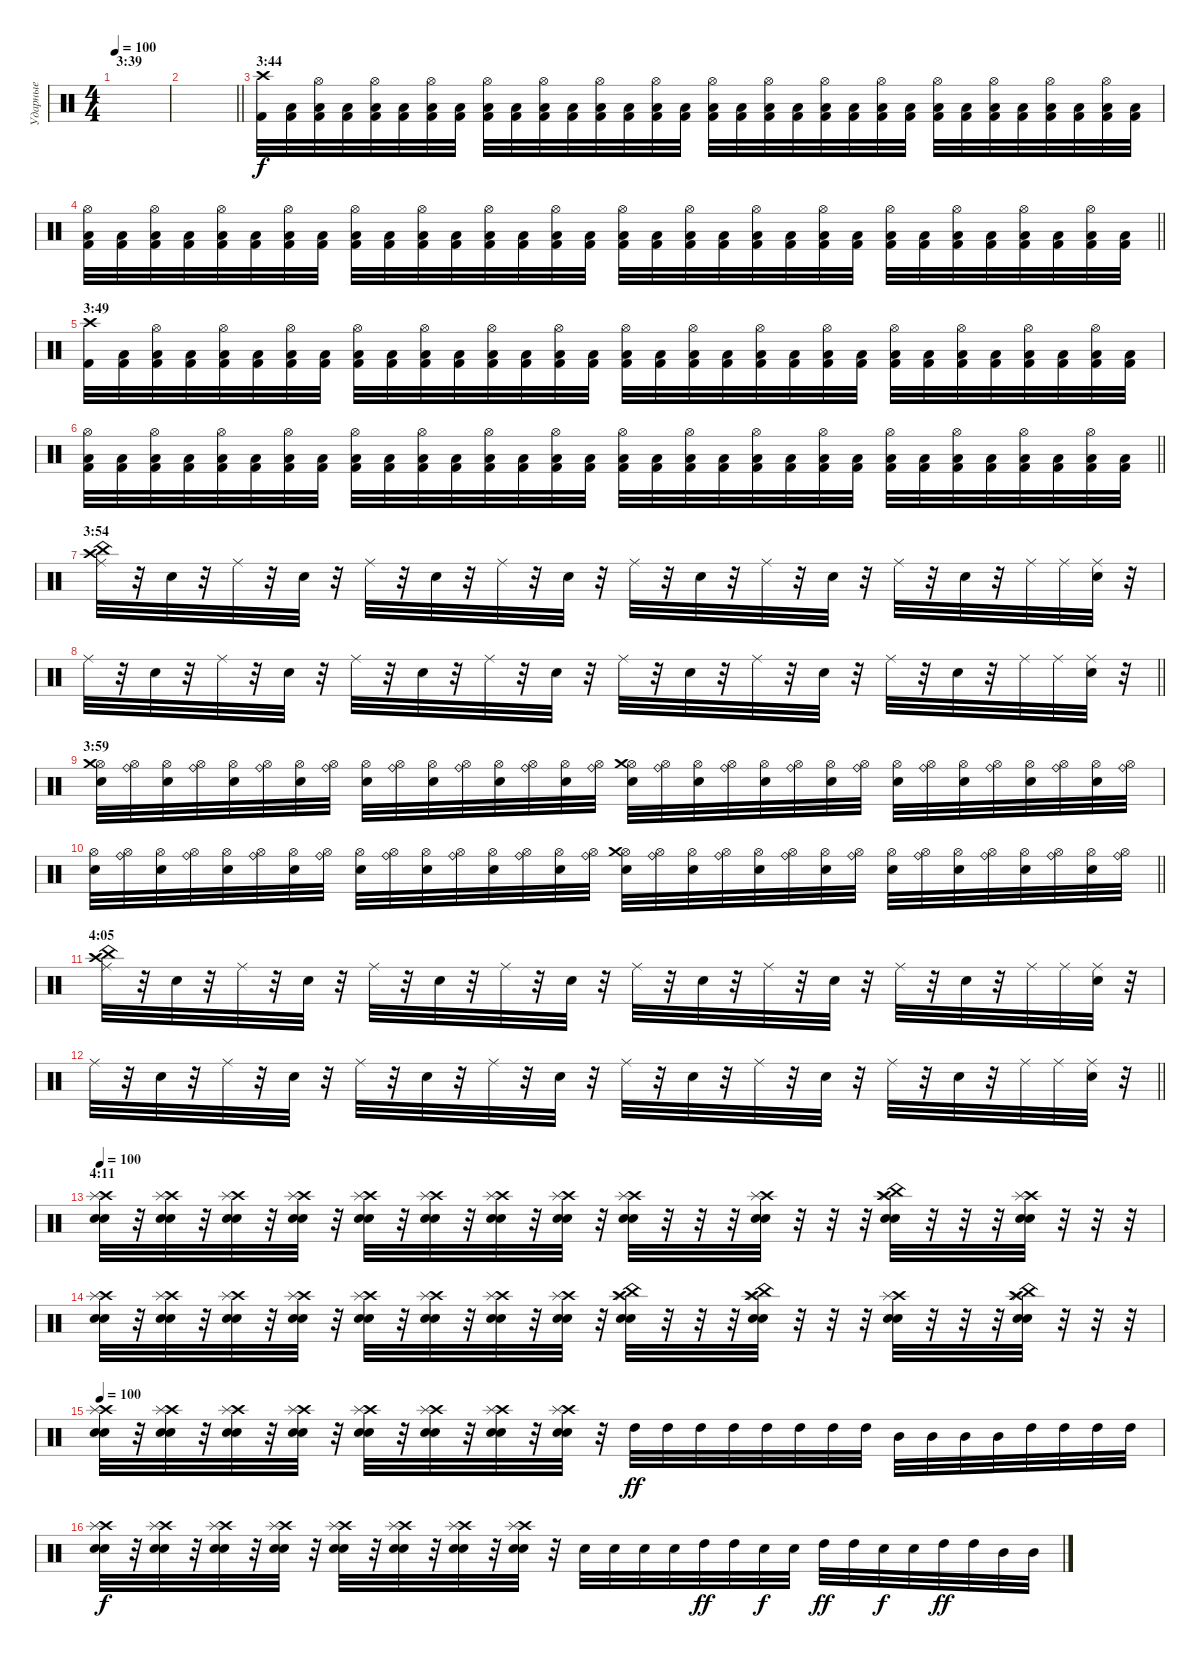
\track ("Ударные" "Ударные") {instrument percussion}
\staff {score}
\articulation defaults
\ts (4 4)
\section ("" "3:39")
\tempo 100
\clef neutral
\ks c
|
\barLineRight lightlight
|
\section ("" "3:44")
("Crash high (hit)" "Kick (hit) 2").32{dy f} ("Low Floor Tom (hit)" "Kick (hit) 2").32 ("Low Floor Tom (hit)" "Kick (hit) 2" "Hi-Hat (open)").32 ("Low Floor Tom (hit)" "Kick (hit) 2").32 ("Low Floor Tom (hit)" "Kick (hit) 2" "Hi-Hat (open)").32 ("Low Floor Tom (hit)" "Kick (hit) 2").32 ("Low Floor Tom (hit)" "Kick (hit) 2" "Hi-Hat (open)").32 ("Low Floor Tom (hit)" "Kick (hit) 2").32 ("Low Floor Tom (hit)" "Kick (hit) 2" "Hi-Hat (open)").32 ("Low Floor Tom (hit)" "Kick (hit) 2").32 ("Low Floor Tom (hit)" "Kick (hit) 2" "Hi-Hat (open)").32 ("Low Floor Tom (hit)" "Kick (hit) 2").32 ("Low Floor Tom (hit)" "Kick (hit) 2" "Hi-Hat (open)").32 ("Low Floor Tom (hit)" "Kick (hit) 2").32 ("Low Floor Tom (hit)" "Kick (hit) 2" "Hi-Hat (open)").32 ("Low Floor Tom (hit)" "Kick (hit) 2").32 ("Low Floor Tom (hit)" "Kick (hit) 2" "Hi-Hat (open)").32 ("Low Floor Tom (hit)" "Kick (hit) 2").32 ("Low Floor Tom (hit)" "Kick (hit) 2" "Hi-Hat (open)").32 ("Low Floor Tom (hit)" "Kick (hit) 2").32 ("Low Floor Tom (hit)" "Kick (hit) 2" "Hi-Hat (open)").32 ("Low Floor Tom (hit)" "Kick (hit) 2").32 ("Low Floor Tom (hit)" "Kick (hit) 2" "Hi-Hat (open)").32 ("Low Floor Tom (hit)" "Kick (hit) 2").32 ("Low Floor Tom (hit)" "Kick (hit) 2" "Hi-Hat (open)").32 ("Low Floor Tom (hit)" "Kick (hit) 2").32 ("Low Floor Tom (hit)" "Kick (hit) 2" "Hi-Hat (open)").32 ("Low Floor Tom (hit)" "Kick (hit) 2").32 ("Low Floor Tom (hit)" "Kick (hit) 2" "Hi-Hat (open)").32 ("Low Floor Tom (hit)" "Kick (hit) 2").32 ("Low Floor Tom (hit)" "Kick (hit) 2" "Hi-Hat (open)").32 ("Low Floor Tom (hit)" "Kick (hit) 2").32 |
\barLineRight lightlight
("Low Floor Tom (hit)" "Kick (hit) 2" "Hi-Hat (open)").32 ("Low Floor Tom (hit)" "Kick (hit) 2").32 ("Low Floor Tom (hit)" "Kick (hit) 2" "Hi-Hat (open)").32 ("Low Floor Tom (hit)" "Kick (hit) 2").32 ("Low Floor Tom (hit)" "Kick (hit) 2" "Hi-Hat (open)").32 ("Low Floor Tom (hit)" "Kick (hit) 2").32 ("Low Floor Tom (hit)" "Kick (hit) 2" "Hi-Hat (open)").32 ("Low Floor Tom (hit)" "Kick (hit) 2").32 ("Low Floor Tom (hit)" "Kick (hit) 2" "Hi-Hat (open)").32 ("Low Floor Tom (hit)" "Kick (hit) 2").32 ("Low Floor Tom (hit)" "Kick (hit) 2" "Hi-Hat (open)").32 ("Low Floor Tom (hit)" "Kick (hit) 2").32 ("Low Floor Tom (hit)" "Kick (hit) 2" "Hi-Hat (open)").32 ("Low Floor Tom (hit)" "Kick (hit) 2").32 ("Low Floor Tom (hit)" "Kick (hit) 2" "Hi-Hat (open)").32 ("Low Floor Tom (hit)" "Kick (hit) 2").32 ("Low Floor Tom (hit)" "Kick (hit) 2" "Hi-Hat (open)").32 ("Low Floor Tom (hit)" "Kick (hit) 2").32 ("Low Floor Tom (hit)" "Kick (hit) 2" "Hi-Hat (open)").32 ("Low Floor Tom (hit)" "Kick (hit) 2").32 ("Low Floor Tom (hit)" "Kick (hit) 2" "Hi-Hat (open)").32 ("Low Floor Tom (hit)" "Kick (hit) 2").32 ("Low Floor Tom (hit)" "Kick (hit) 2" "Hi-Hat (open)").32 ("Low Floor Tom (hit)" "Kick (hit) 2").32 ("Low Floor Tom (hit)" "Kick (hit) 2" "Hi-Hat (open)").32 ("Low Floor Tom (hit)" "Kick (hit) 2").32 ("Low Floor Tom (hit)" "Kick (hit) 2" "Hi-Hat (open)").32 ("Low Floor Tom (hit)" "Kick (hit) 2").32 ("Low Floor Tom (hit)" "Kick (hit) 2" "Hi-Hat (open)").32 ("Low Floor Tom (hit)" "Kick (hit) 2").32 ("Low Floor Tom (hit)" "Kick (hit) 2" "Hi-Hat (open)").32 ("Low Floor Tom (hit)" "Kick (hit) 2").32 |
\section ("" "3:49")
("Crash high (hit)" "Kick (hit) 2").32 ("Low Floor Tom (hit)" "Kick (hit) 2").32 ("Low Floor Tom (hit)" "Kick (hit) 2" "Hi-Hat (open)").32 ("Low Floor Tom (hit)" "Kick (hit) 2").32 ("Low Floor Tom (hit)" "Kick (hit) 2" "Hi-Hat (open)").32 ("Low Floor Tom (hit)" "Kick (hit) 2").32 ("Low Floor Tom (hit)" "Kick (hit) 2" "Hi-Hat (open)").32 ("Low Floor Tom (hit)" "Kick (hit) 2").32 ("Low Floor Tom (hit)" "Kick (hit) 2" "Hi-Hat (open)").32 ("Low Floor Tom (hit)" "Kick (hit) 2").32 ("Low Floor Tom (hit)" "Kick (hit) 2" "Hi-Hat (open)").32 ("Low Floor Tom (hit)" "Kick (hit) 2").32 ("Low Floor Tom (hit)" "Kick (hit) 2" "Hi-Hat (open)").32 ("Low Floor Tom (hit)" "Kick (hit) 2").32 ("Low Floor Tom (hit)" "Kick (hit) 2" "Hi-Hat (open)").32 ("Low Floor Tom (hit)" "Kick (hit) 2").32 ("Low Floor Tom (hit)" "Kick (hit) 2" "Hi-Hat (open)").32 ("Low Floor Tom (hit)" "Kick (hit) 2").32 ("Low Floor Tom (hit)" "Kick (hit) 2" "Hi-Hat (open)").32 ("Low Floor Tom (hit)" "Kick (hit) 2").32 ("Low Floor Tom (hit)" "Kick (hit) 2" "Hi-Hat (open)").32 ("Low Floor Tom (hit)" "Kick (hit) 2").32 ("Low Floor Tom (hit)" "Kick (hit) 2" "Hi-Hat (open)").32 ("Low Floor Tom (hit)" "Kick (hit) 2").32 ("Low Floor Tom (hit)" "Kick (hit) 2" "Hi-Hat (open)").32 ("Low Floor Tom (hit)" "Kick (hit) 2").32 ("Low Floor Tom (hit)" "Kick (hit) 2" "Hi-Hat (open)").32 ("Low Floor Tom (hit)" "Kick (hit) 2").32 ("Low Floor Tom (hit)" "Kick (hit) 2" "Hi-Hat (open)").32 ("Low Floor Tom (hit)" "Kick (hit) 2").32 ("Low Floor Tom (hit)" "Kick (hit) 2" "Hi-Hat (open)").32 ("Low Floor Tom (hit)" "Kick (hit) 2").32 |
\barLineRight lightlight
("Low Floor Tom (hit)" "Kick (hit) 2" "Hi-Hat (open)").32 ("Low Floor Tom (hit)" "Kick (hit) 2").32 ("Low Floor Tom (hit)" "Kick (hit) 2" "Hi-Hat (open)").32 ("Low Floor Tom (hit)" "Kick (hit) 2").32 ("Low Floor Tom (hit)" "Kick (hit) 2" "Hi-Hat (open)").32 ("Low Floor Tom (hit)" "Kick (hit) 2").32 ("Low Floor Tom (hit)" "Kick (hit) 2" "Hi-Hat (open)").32 ("Low Floor Tom (hit)" "Kick (hit) 2").32 ("Low Floor Tom (hit)" "Kick (hit) 2" "Hi-Hat (open)").32 ("Low Floor Tom (hit)" "Kick (hit) 2").32 ("Low Floor Tom (hit)" "Kick (hit) 2" "Hi-Hat (open)").32 ("Low Floor Tom (hit)" "Kick (hit) 2").32 ("Low Floor Tom (hit)" "Kick (hit) 2" "Hi-Hat (open)").32 ("Low Floor Tom (hit)" "Kick (hit) 2").32 ("Low Floor Tom (hit)" "Kick (hit) 2" "Hi-Hat (open)").32 ("Low Floor Tom (hit)" "Kick (hit) 2").32 ("Low Floor Tom (hit)" "Kick (hit) 2" "Hi-Hat (open)").32 ("Low Floor Tom (hit)" "Kick (hit) 2").32 ("Low Floor Tom (hit)" "Kick (hit) 2" "Hi-Hat (open)").32 ("Low Floor Tom (hit)" "Kick (hit) 2").32 ("Low Floor Tom (hit)" "Kick (hit) 2" "Hi-Hat (open)").32 ("Low Floor Tom (hit)" "Kick (hit) 2").32 ("Low Floor Tom (hit)" "Kick (hit) 2" "Hi-Hat (open)").32 ("Low Floor Tom (hit)" "Kick (hit) 2").32 ("Low Floor Tom (hit)" "Kick (hit) 2" "Hi-Hat (open)").32 ("Low Floor Tom (hit)" "Kick (hit) 2").32 ("Low Floor Tom (hit)" "Kick (hit) 2" "Hi-Hat (open)").32 ("Low Floor Tom (hit)" "Kick (hit) 2").32 ("Low Floor Tom (hit)" "Kick (hit) 2" "Hi-Hat (open)").32 ("Low Floor Tom (hit)" "Kick (hit) 2").32 ("Low Floor Tom (hit)" "Kick (hit) 2" "Hi-Hat (open)").32 ("Low Floor Tom (hit)" "Kick (hit) 2").32 |
\section ("" "3:54")
("Crash high (hit)" "Ride (middle)" "China (hit)").32 r.32 "Electric Snare (hit)".32 r.32 "Ride (middle)".32 r.32 "Electric Snare (hit)".32 r.32 "Ride (middle)".32 r.32 "Electric Snare (hit)".32 r.32 "Ride (middle)".32 r.32 "Electric Snare (hit)".32 r.32 "Ride (middle)".32 r.32 "Electric Snare (hit)".32 r.32 "Ride (middle)".32 r.32 "Electric Snare (hit)".32 r.32 "Ride (middle)".32 r.32 "Electric Snare (hit)".32 r.32 "Ride (middle)".32 "Ride (middle)".32 ("Ride (middle)" "Electric Snare (hit)").32 r.32 |
\barLineRight lightlight "Ride (middle)".32
r.32 "Electric Snare (hit)".32 r.32 "Ride (middle)".32 r.32 "Electric Snare (hit)".32 r.32 "Ride (middle)".32 r.32 "Electric Snare (hit)".32 r.32 "Ride (middle)".32 r.32 "Electric Snare (hit)".32 r.32 "Ride (middle)".32 r.32 "Electric Snare (hit)".32 r.32 "Ride (middle)".32 r.32 "Electric Snare (hit)".32 r.32 "Ride (middle)".32 r.32 "Electric Snare (hit)".32 r.32 "Ride (middle)".32 "Ride (middle)".32 ("Ride (middle)" "Electric Snare (hit)").32 r.32 |
\section ("" "3:59")
("Hi-Hat (open)" "Crash medium (hit)" "Electric Snare (hit)").32 ("Hi-Hat (open)" "Ride (bell)").32 ("Hi-Hat (open)" "Electric Snare (hit)").32 ("Hi-Hat (open)" "Ride (bell)").32 ("Hi-Hat (open)" "Electric Snare (hit)").32 ("Hi-Hat (open)" "Ride (bell)").32 ("Hi-Hat (open)" "Electric Snare (hit)").32 ("Hi-Hat (open)" "Ride (bell)").32 ("Hi-Hat (open)" "Electric Snare (hit)").32 ("Hi-Hat (open)" "Ride (bell)").32 ("Hi-Hat (open)" "Electric Snare (hit)").32 ("Hi-Hat (open)" "Ride (bell)").32 ("Hi-Hat (open)" "Electric Snare (hit)").32 ("Hi-Hat (open)" "Ride (bell)").32 ("Hi-Hat (open)" "Electric Snare (hit)").32 ("Hi-Hat (open)" "Ride (bell)").32 ("Hi-Hat (open)" "Crash medium (hit)" "Electric Snare (hit)").32 ("Hi-Hat (open)" "Ride (bell)").32 ("Hi-Hat (open)" "Electric Snare (hit)").32 ("Hi-Hat (open)" "Ride (bell)").32 ("Hi-Hat (open)" "Electric Snare (hit)").32 ("Hi-Hat (open)" "Ride (bell)").32 ("Hi-Hat (open)" "Electric Snare (hit)").32 ("Hi-Hat (open)" "Ride (bell)").32 ("Hi-Hat (open)" "Electric Snare (hit)").32 ("Hi-Hat (open)" "Ride (bell)").32 ("Hi-Hat (open)" "Electric Snare (hit)").32 ("Hi-Hat (open)" "Ride (bell)").32 ("Hi-Hat (open)" "Electric Snare (hit)").32 ("Hi-Hat (open)" "Ride (bell)").32 ("Hi-Hat (open)" "Electric Snare (hit)").32 ("Hi-Hat (open)" "Ride (bell)").32 |
\barLineRight lightlight
("Hi-Hat (open)" "Electric Snare (hit)").32 ("Hi-Hat (open)" "Ride (bell)").32 ("Hi-Hat (open)" "Electric Snare (hit)").32 ("Hi-Hat (open)" "Ride (bell)").32 ("Hi-Hat (open)" "Electric Snare (hit)").32 ("Hi-Hat (open)" "Ride (bell)").32 ("Hi-Hat (open)" "Electric Snare (hit)").32 ("Hi-Hat (open)" "Ride (bell)").32 ("Hi-Hat (open)" "Electric Snare (hit)").32 ("Hi-Hat (open)" "Ride (bell)").32 ("Hi-Hat (open)" "Electric Snare (hit)").32 ("Hi-Hat (open)" "Ride (bell)").32 ("Hi-Hat (open)" "Electric Snare (hit)").32 ("Hi-Hat (open)" "Ride (bell)").32 ("Hi-Hat (open)" "Electric Snare (hit)").32 ("Hi-Hat (open)" "Ride (bell)").32 ("Hi-Hat (open)" "Crash medium (hit)" "Electric Snare (hit)").32 ("Hi-Hat (open)" "Ride (bell)").32 ("Hi-Hat (open)" "Electric Snare (hit)").32 ("Hi-Hat (open)" "Ride (bell)").32 ("Hi-Hat (open)" "Electric Snare (hit)").32 ("Hi-Hat (open)" "Ride (bell)").32 ("Hi-Hat (open)" "Electric Snare (hit)").32 ("Hi-Hat (open)" "Ride (bell)").32 ("Hi-Hat (open)" "Electric Snare (hit)").32 ("Hi-Hat (open)" "Ride (bell)").32 ("Hi-Hat (open)" "Electric Snare (hit)").32 ("Hi-Hat (open)" "Ride (bell)").32 ("Hi-Hat (open)" "Electric Snare (hit)").32 ("Hi-Hat (open)" "Ride (bell)").32 ("Hi-Hat (open)" "Electric Snare (hit)").32 ("Hi-Hat (open)" "Ride (bell)").32 |
\section ("" "4:05")
("Crash high (hit)" "Ride (middle)" "China (hit)").32 r.32 "Electric Snare (hit)".32 r.32 "Ride (middle)".32 r.32 "Electric Snare (hit)".32 r.32 "Ride (middle)".32 r.32 "Electric Snare (hit)".32 r.32 "Ride (middle)".32 r.32 "Electric Snare (hit)".32 r.32 "Ride (middle)".32 r.32 "Electric Snare (hit)".32 r.32 "Ride (middle)".32 r.32 "Electric Snare (hit)".32 r.32 "Ride (middle)".32 r.32 "Electric Snare (hit)".32 r.32 "Ride (middle)".32 "Ride (middle)".32 ("Ride (middle)" "Electric Snare (hit)").32 r.32 |
\barLineRight lightlight "Ride (middle)".32
r.32 "Electric Snare (hit)".32 r.32 "Ride (middle)".32 r.32 "Electric Snare (hit)".32 r.32 "Ride (middle)".32 r.32 "Electric Snare (hit)".32 r.32 "Ride (middle)".32 r.32 "Electric Snare (hit)".32 r.32 "Ride (middle)".32 r.32 "Electric Snare (hit)".32 r.32 "Ride (middle)".32 r.32 "Electric Snare (hit)".32 r.32 "Ride (middle)".32 r.32 "Electric Snare (hit)".32 r.32 "Ride (middle)".32 "Ride (middle)".32 ("Ride (middle)" "Electric Snare (hit)").32 r.32 |
\section ("" "4:11")
\tempo 100
("Crash high (hit)" "Splash (hit)" "Snare (hit) 2" "Electric Snare (hit)").32 r.32 ("Crash high (hit)" "Splash (hit)" "Snare (hit) 2" "Electric Snare (hit)").32 r.32 ("Crash high (hit)" "Splash (hit)" "Snare (hit) 2" "Electric Snare (hit)").32 r.32 ("Crash high (hit)" "Splash (hit)" "Snare (hit) 2" "Electric Snare (hit)").32 r.32 ("Crash high (hit)" "Splash (hit)" "Snare (hit) 2" "Electric Snare (hit)").32 r.32 ("Crash high (hit)" "Splash (hit)" "Snare (hit) 2" "Electric Snare (hit)").32 r.32 ("Crash high (hit)" "Splash (hit)" "Snare (hit) 2" "Electric Snare (hit)").32 r.32 ("Crash high (hit)" "Splash (hit)" "Snare (hit) 2" "Electric Snare (hit)").32 r.32 ("Crash high (hit)" "Splash (hit)" "Snare (hit) 2" "Electric Snare (hit)").32 r.32 r.32 r.32 ("Crash high (hit)" "Splash (hit)" "Snare (hit) 2" "Electric Snare (hit)").32 r.32 r.32 r.32 ("China (hit)" "Crash high (hit)" "Splash (hit)" "Snare (hit) 2" "Electric Snare (hit)").32 r.32 r.32 r.32 ("Crash high (hit)" "Splash (hit)" "Snare (hit) 2" "Electric Snare (hit)").32 r.32 r.32 r.32 |
("Crash high (hit)" "Splash (hit)" "Snare (hit) 2" "Electric Snare (hit)").32 r.32 ("Crash high (hit)" "Splash (hit)" "Snare (hit) 2" "Electric Snare (hit)").32 r.32 ("Crash high (hit)" "Splash (hit)" "Snare (hit) 2" "Electric Snare (hit)").32 r.32 ("Crash high (hit)" "Splash (hit)" "Snare (hit) 2" "Electric Snare (hit)").32 r.32 ("Crash high (hit)" "Splash (hit)" "Snare (hit) 2" "Electric Snare (hit)").32 r.32 ("Crash high (hit)" "Splash (hit)" "Snare (hit) 2" "Electric Snare (hit)").32 r.32 ("Crash high (hit)" "Splash (hit)" "Snare (hit) 2" "Electric Snare (hit)").32 r.32 ("Crash high (hit)" "Splash (hit)" "Snare (hit) 2" "Electric Snare (hit)").32 r.32 ("China (hit)" "Crash high (hit)" "Splash (hit)" "Snare (hit) 2" "Electric Snare (hit)").32 r.32 r.32 r.32 ("China (hit)" "Crash high (hit)" "Splash (hit)" "Snare (hit) 2" "Electric Snare (hit)").32 r.32 r.32 r.32 ("Crash high (hit)" "Splash (hit)" "Snare (hit) 2" "Electric Snare (hit)").32 r.32 r.32 r.32 ("China (hit)" "Crash high (hit)" "Splash (hit)" "Snare (hit) 2" "Electric Snare (hit)").32 r.32 r.32 r.32 |
\tempo 100
("Crash high (hit)" "Splash (hit)" "Snare (hit) 2" "Electric Snare (hit)").32 r.32 ("Crash high (hit)" "Splash (hit)" "Snare (hit) 2" "Electric Snare (hit)").32 r.32 ("Crash high (hit)" "Splash (hit)" "Snare (hit) 2" "Electric Snare (hit)").32 r.32 ("Crash high (hit)" "Splash (hit)" "Snare (hit) 2" "Electric Snare (hit)").32 r.32 ("Crash high (hit)" "Splash (hit)" "Snare (hit) 2" "Electric Snare (hit)").32 r.32 ("Crash high (hit)" "Splash (hit)" "Snare (hit) 2" "Electric Snare (hit)").32 r.32 ("Crash high (hit)" "Splash (hit)" "Snare (hit) 2" "Electric Snare (hit)").32 r.32 ("Crash high (hit)" "Splash (hit)" "Snare (hit) 2" "Electric Snare (hit)").32 r.32 "High Tom (hit)".32{dy ff} "High Tom (hit)".32 "High Tom (hit)".32 "High Tom (hit)".32 "High Tom (hit)".32 "High Tom (hit)".32 "High Tom (hit)".32 "High Tom (hit)".32 "Mid Tom (hit)".32 "Mid Tom (hit)".32 "Mid Tom (hit)".32 "Mid Tom (hit)".32 "High Tom (hit)".32 "High Tom (hit)".32 "High Tom (hit)".32 "High Tom (hit)".32 |
("Crash high (hit)" "Splash (hit)" "Snare (hit) 2" "Electric Snare (hit)").32{dy f} r.32 ("Crash high (hit)" "Splash (hit)" "Snare (hit) 2" "Electric Snare (hit)").32 r.32 ("Crash high (hit)" "Splash (hit)" "Snare (hit) 2" "Electric Snare (hit)").32 r.32 ("Crash high (hit)" "Splash (hit)" "Snare (hit) 2" "Electric Snare (hit)").32 r.32 ("Crash high (hit)" "Splash (hit)" "Snare (hit) 2" "Electric Snare (hit)").32 r.32 ("Crash high (hit)" "Splash (hit)" "Snare (hit) 2" "Electric Snare (hit)").32 r.32 ("Crash high (hit)" "Splash (hit)" "Snare (hit) 2" "Electric Snare (hit)").32 r.32 ("Crash high (hit)" "Splash (hit)" "Snare (hit) 2" "Electric Snare (hit)").32 r.32 "Electric Snare (hit)".32 "Electric Snare (hit)".32 "Electric Snare (hit)".32 "Electric Snare (hit)".32 "High Tom (hit)".32{dy ff} "High Tom (hit)".32 "Electric Snare (hit)".32{dy f} "Electric Snare (hit)".32 "High Tom (hit)".32{dy ff} "High Tom (hit)".32 "Electric Snare (hit)".32{dy f} "Electric Snare (hit)".32 "High Tom (hit)".32{dy ff} "High Tom (hit)".32 "Mid Tom (hit)".32 "Mid Tom (hit)".32
